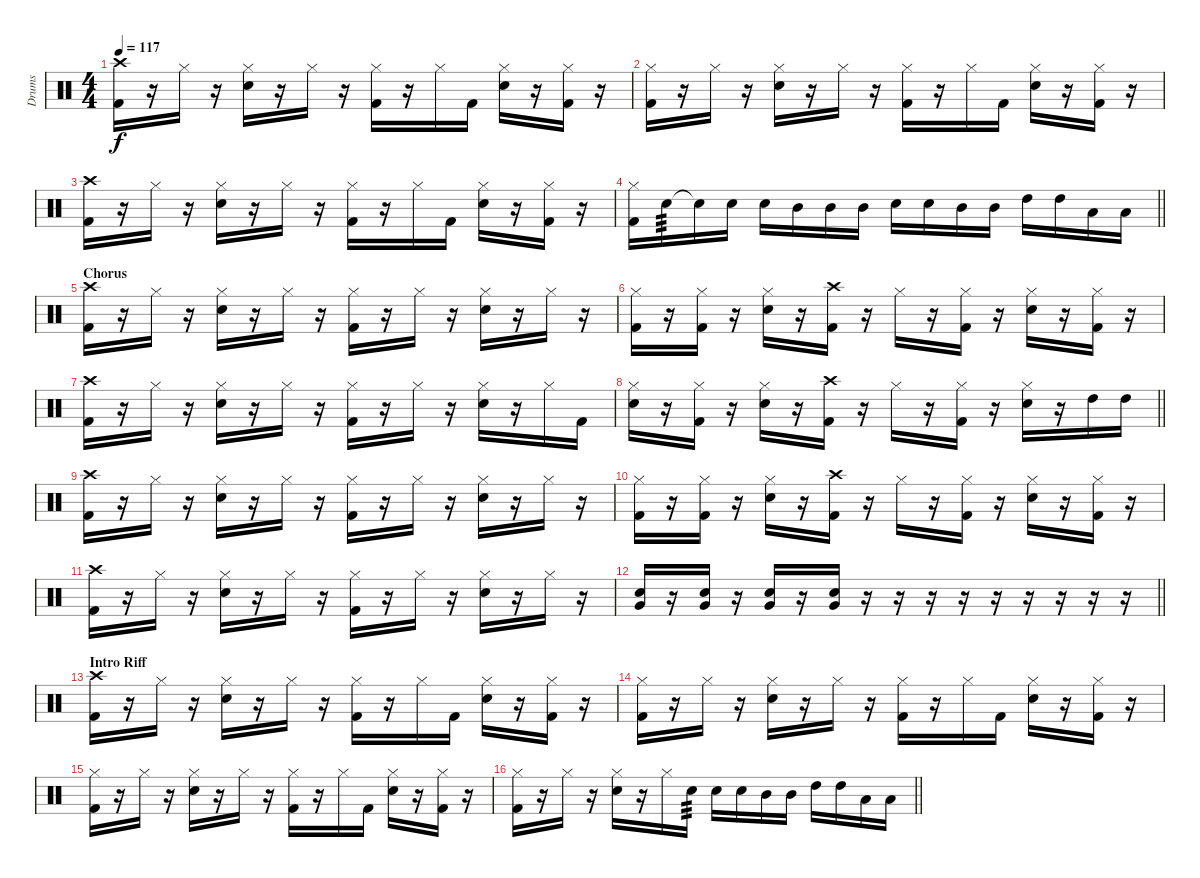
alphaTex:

\track ("Drums" "Drums") {instrument percussion}
\staff {score}
\articulation defaults
\ts (4 4)
\tempo 117
\clef neutral
\ks c
("Crash high (hit)" "Kick (hit) 2").16{dy f} r.16 "Hi-Hat (closed)".16 r.16 ("Hi-Hat (closed)" "Electric Snare (hit)").16 r.16 "Hi-Hat (closed)".16 r.16 ("Hi-Hat (closed)" "Kick (hit) 2").16 r.16 "Hi-Hat (closed)".16 "Kick (hit) 2".16 ("Hi-Hat (closed)" "Electric Snare (hit)").16 r.16 ("Hi-Hat (closed)" "Kick (hit) 2").16 r.16 |
("Hi-Hat (closed)" "Kick (hit) 2").16 r.16 "Hi-Hat (closed)".16 r.16 ("Hi-Hat (closed)" "Electric Snare (hit)").16 r.16 "Hi-Hat (closed)".16 r.16 ("Hi-Hat (closed)" "Kick (hit) 2").16 r.16 "Hi-Hat (closed)".16 "Kick (hit) 2".16 ("Hi-Hat (closed)" "Electric Snare (hit)").16 r.16 ("Hi-Hat (closed)" "Kick (hit) 2").16 r.16 |
("Crash high (hit)" "Kick (hit) 2").16 r.16 "Hi-Hat (closed)".16 r.16 ("Hi-Hat (closed)" "Electric Snare (hit)").16 r.16 "Hi-Hat (closed)".16 r.16 ("Hi-Hat (closed)" "Kick (hit) 2").16 r.16 "Hi-Hat (closed)".16 "Kick (hit) 2".16 ("Hi-Hat (closed)" "Electric Snare (hit)").16 r.16 ("Hi-Hat (closed)" "Kick (hit) 2").16 r.16 |
\barLineRight lightlight
("Hi-Hat (closed)" "Kick (hit) 2").16 "Electric Snare (hit)".16{tp 3} "Electric Snare (hit)"{t}.16 "Electric Snare (hit)".16 "Electric Snare (hit)".16 "Mid Tom (hit)".16 "Mid Tom (hit)".16 "Mid Tom (hit)".16 "Electric Snare (hit)".16 "Electric Snare (hit)".16 "Mid Tom (hit)".16 "Mid Tom (hit)".16 "High Tom (hit)".16 "High Tom (hit)".16 "Low Tom (hit)".16 "Low Tom (hit)".16 |
\section ("" "Chorus")
("Crash high (hit)" "Kick (hit) 2").16 r.16 "Hi-Hat (closed)".16 r.16 ("Hi-Hat (closed)" "Electric Snare (hit)").16 r.16 "Hi-Hat (closed)".16 r.16 ("Hi-Hat (closed)" "Kick (hit) 2").16 r.16 "Hi-Hat (closed)".16 r.16 ("Hi-Hat (closed)" "Electric Snare (hit)").16 r.16 "Hi-Hat (closed)".16 r.16 |
("Hi-Hat (closed)" "Kick (hit) 2").16 r.16 ("Hi-Hat (closed)" "Kick (hit) 2").16 r.16 ("Hi-Hat (closed)" "Electric Snare (hit)").16 r.16 ("Crash high (hit)" "Kick (hit) 2").16 r.16 "Hi-Hat (closed)".16 r.16 ("Hi-Hat (closed)" "Kick (hit) 2").16 r.16 ("Hi-Hat (closed)" "Electric Snare (hit)").16 r.16 ("Hi-Hat (closed)" "Kick (hit) 2").16 r.16 |
("Crash high (hit)" "Kick (hit) 2").16 r.16 "Hi-Hat (closed)".16 r.16 ("Hi-Hat (closed)" "Electric Snare (hit)").16 r.16 "Hi-Hat (closed)".16 r.16 ("Hi-Hat (closed)" "Kick (hit) 2").16 r.16 "Hi-Hat (closed)".16 r.16 ("Hi-Hat (closed)" "Electric Snare (hit)").16 r.16 "Hi-Hat (closed)".16 "Kick (hit) 2".16 |
\barLineRight lightlight
("Hi-Hat (closed)" "Electric Snare (hit)").16 r.16 ("Hi-Hat (closed)" "Kick (hit) 2").16 r.16 ("Hi-Hat (closed)" "Electric Snare (hit)").16 r.16 ("Crash high (hit)" "Kick (hit) 2").16 r.16 "Hi-Hat (closed)".16 r.16 ("Hi-Hat (closed)" "Kick (hit) 2").16 r.16 ("Hi-Hat (closed)" "Electric Snare (hit)").16 r.16 "High Tom (hit)".16 "High Tom (hit)".16 |
("Crash high (hit)" "Kick (hit) 2").16 r.16 "Hi-Hat (closed)".16 r.16 ("Hi-Hat (closed)" "Electric Snare (hit)").16 r.16 "Hi-Hat (closed)".16 r.16 ("Hi-Hat (closed)" "Kick (hit) 2").16 r.16 "Hi-Hat (closed)".16 r.16 ("Hi-Hat (closed)" "Electric Snare (hit)").16 r.16 "Hi-Hat (closed)".16 r.16 |
("Hi-Hat (closed)" "Kick (hit) 2").16 r.16 ("Hi-Hat (closed)" "Kick (hit) 2").16 r.16 ("Hi-Hat (closed)" "Electric Snare (hit)").16 r.16 ("Crash high (hit)" "Kick (hit) 2").16 r.16 "Hi-Hat (closed)".16 r.16 ("Hi-Hat (closed)" "Kick (hit) 2").16 r.16 ("Hi-Hat (closed)" "Electric Snare (hit)").16 r.16 ("Hi-Hat (closed)" "Kick (hit) 2").16 r.16 |
("Crash high (hit)" "Kick (hit) 2").16 r.16 "Hi-Hat (closed)".16 r.16 ("Hi-Hat (closed)" "Electric Snare (hit)").16 r.16 "Hi-Hat (closed)".16 r.16 ("Hi-Hat (closed)" "Kick (hit) 2").16 r.16 "Hi-Hat (closed)".16 r.16 ("Hi-Hat (closed)" "Electric Snare (hit)").16 r.16 "Hi-Hat (closed)".16 r.16 |
\barLineRight lightlight
("Very Low Tom (hit)" "Electric Snare (hit)").16 r.16 ("Very Low Tom (hit)" "Electric Snare (hit)").16 r.16 ("Very Low Tom (hit)" "Electric Snare (hit)").16 r.16 ("Very Low Tom (hit)" "Electric Snare (hit)").16 r.16 r.16 r.16 r.16 r.16 r.16 r.16 r.16 r.16 |
\section ("" "Intro Riff")
("Crash high (hit)" "Kick (hit) 2").16 r.16 "Hi-Hat (closed)".16 r.16 ("Hi-Hat (closed)" "Electric Snare (hit)").16 r.16 "Hi-Hat (closed)".16 r.16 ("Hi-Hat (closed)" "Kick (hit) 2").16 r.16 "Hi-Hat (closed)".16 "Kick (hit) 2".16 ("Hi-Hat (closed)" "Electric Snare (hit)").16 r.16 ("Hi-Hat (closed)" "Kick (hit) 2").16 r.16 |
("Hi-Hat (closed)" "Kick (hit) 2").16 r.16 "Hi-Hat (closed)".16 r.16 ("Hi-Hat (closed)" "Electric Snare (hit)").16 r.16 "Hi-Hat (closed)".16 r.16 ("Hi-Hat (closed)" "Kick (hit) 2").16 r.16 "Hi-Hat (closed)".16 "Kick (hit) 2".16 ("Hi-Hat (closed)" "Electric Snare (hit)").16 r.16 ("Hi-Hat (closed)" "Kick (hit) 2").16 r.16 |
("Hi-Hat (closed)" "Kick (hit) 2").16 r.16 "Hi-Hat (closed)".16 r.16 ("Hi-Hat (closed)" "Electric Snare (hit)").16 r.16 "Hi-Hat (closed)".16 r.16 ("Hi-Hat (closed)" "Kick (hit) 2").16 r.16 "Hi-Hat (closed)".16 "Kick (hit) 2".16 ("Hi-Hat (closed)" "Electric Snare (hit)").16 r.16 ("Hi-Hat (closed)" "Kick (hit) 2").16 r.16 |
\barLineRight lightlight
("Hi-Hat (closed)" "Kick (hit) 2").16 r.16 "Hi-Hat (closed)".16 r.16 ("Hi-Hat (closed)" "Electric Snare (hit)").16 r.16 "Hi-Hat (closed)".16 "Electric Snare (hit)".16{tp 3} "Electric Snare (hit)".16 "Electric Snare (hit)".16 "Mid Tom (hit)".16 "Mid Tom (hit)".16 "High Tom (hit)".16 "High Tom (hit)".16 "Low Tom (hit)".16 "Low Tom (hit)".16
